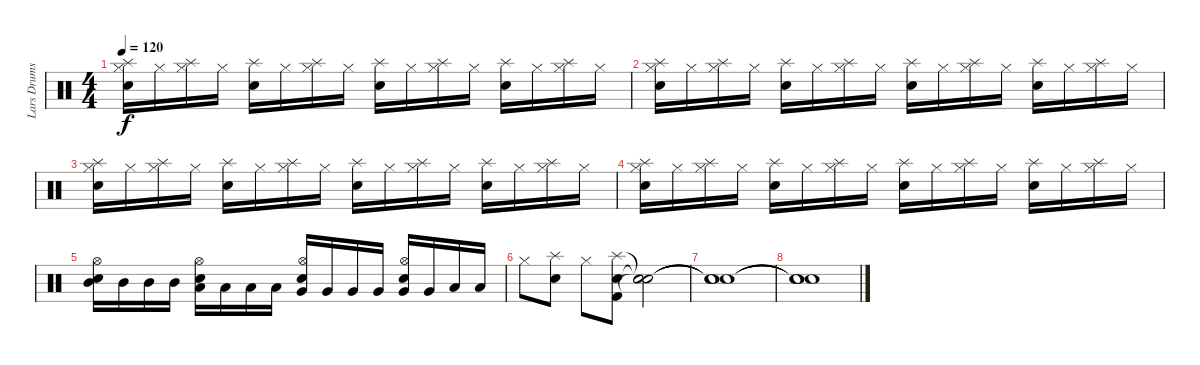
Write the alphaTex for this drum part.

\track ("Lars Drums" "Lars Drums") {instrument percussion}
\staff {score}
\articulation defaults
\ts (4 4)
\tempo 120
\clef neutral
\ks c
("Hi-Hat (closed)" "Snare (hit) 2" "Splash (hit)").16{dy f} "Hi-Hat (closed)".16 ("Hi-Hat (closed)" "Splash (hit)").16 "Hi-Hat (closed)".16 ("Splash (hit)" "Snare (hit) 2").16 "Hi-Hat (closed)".16 ("Hi-Hat (closed)" "Splash (hit)").16 "Hi-Hat (closed)".16 ("Splash (hit)" "Snare (hit) 2").16 "Hi-Hat (closed)".16 ("Hi-Hat (closed)" "Splash (hit)").16 "Hi-Hat (closed)".16 ("Splash (hit)" "Snare (hit) 2").16 "Hi-Hat (closed)".16 ("Hi-Hat (closed)" "Splash (hit)").16 "Hi-Hat (closed)".16 |
("Hi-Hat (closed)" "Snare (hit) 2" "Splash (hit)").16 "Hi-Hat (closed)".16 ("Hi-Hat (closed)" "Splash (hit)").16 "Hi-Hat (closed)".16 ("Splash (hit)" "Snare (hit) 2").16 "Hi-Hat (closed)".16 ("Hi-Hat (closed)" "Splash (hit)").16 "Hi-Hat (closed)".16 ("Splash (hit)" "Snare (hit) 2").16 "Hi-Hat (closed)".16 ("Hi-Hat (closed)" "Splash (hit)").16 "Hi-Hat (closed)".16 ("Splash (hit)" "Snare (hit) 2").16 "Hi-Hat (closed)".16 ("Hi-Hat (closed)" "Splash (hit)").16 "Hi-Hat (closed)".16 |
("Hi-Hat (closed)" "Snare (hit) 2" "Splash (hit)").16 "Hi-Hat (closed)".16 ("Hi-Hat (closed)" "Splash (hit)").16 "Hi-Hat (closed)".16 ("Splash (hit)" "Snare (hit) 2").16 "Hi-Hat (closed)".16 ("Hi-Hat (closed)" "Splash (hit)").16 "Hi-Hat (closed)".16 ("Splash (hit)" "Snare (hit) 2").16 "Hi-Hat (closed)".16 ("Hi-Hat (closed)" "Splash (hit)").16 "Hi-Hat (closed)".16 ("Splash (hit)" "Snare (hit) 2").16 "Hi-Hat (closed)".16 ("Hi-Hat (closed)" "Splash (hit)").16 "Hi-Hat (closed)".16 |
("Hi-Hat (closed)" "Snare (hit) 2" "Splash (hit)").16 "Hi-Hat (closed)".16 ("Hi-Hat (closed)" "Splash (hit)").16 "Hi-Hat (closed)".16 ("Splash (hit)" "Snare (hit) 2").16 "Hi-Hat (closed)".16 ("Hi-Hat (closed)" "Splash (hit)").16 "Hi-Hat (closed)".16 ("Splash (hit)" "Snare (hit) 2").16 "Hi-Hat (closed)".16 ("Hi-Hat (closed)" "Splash (hit)").16 "Hi-Hat (closed)".16 ("Splash (hit)" "Snare (hit) 2").16 "Hi-Hat (closed)".16 ("Hi-Hat (closed)" "Splash (hit)").16 "Hi-Hat (closed)".16 |
("Mid Tom (hit)" "Snare (hit) 2" "Hi-Hat (open)").16 "Mid Tom (hit)".16 "Mid Tom (hit)".16 "Mid Tom (hit)".16 ("Low Tom (hit)" "Snare (hit) 2" "Hi-Hat (open)").16 "Low Tom (hit)".16 "Low Tom (hit)".16 "Low Tom (hit)".16 ("Very Low Tom (hit)" "Snare (hit) 2" "Hi-Hat (open)").16 "Very Low Tom (hit)".16 "Very Low Tom (hit)".16 "Very Low Tom (hit)".16 ("Very Low Tom (hit)" "Snare (hit) 2" "Hi-Hat (open)").16 "Very Low Tom (hit)".16 "Low Floor Tom (hit)".16 "Low Floor Tom (hit)".16 |
"Hi-Hat (closed)".8 ("Snare (hit) 2" "Splash (hit)").8 "Hi-Hat (closed)".8 ("Snare (hit) 2" "Kick (hit) 2" "Splash (hit)").8 ("Snare (hit)"{t} "Snare (hit)"{t} "Snare (hit)"{t}).2 |
("Snare (hit)"{t} "Snare (hit)"{t} "Snare (hit)"{t}).1 |
("Snare (hit)"{t} "Snare (hit)"{t} "Snare (hit)"{t}).1
